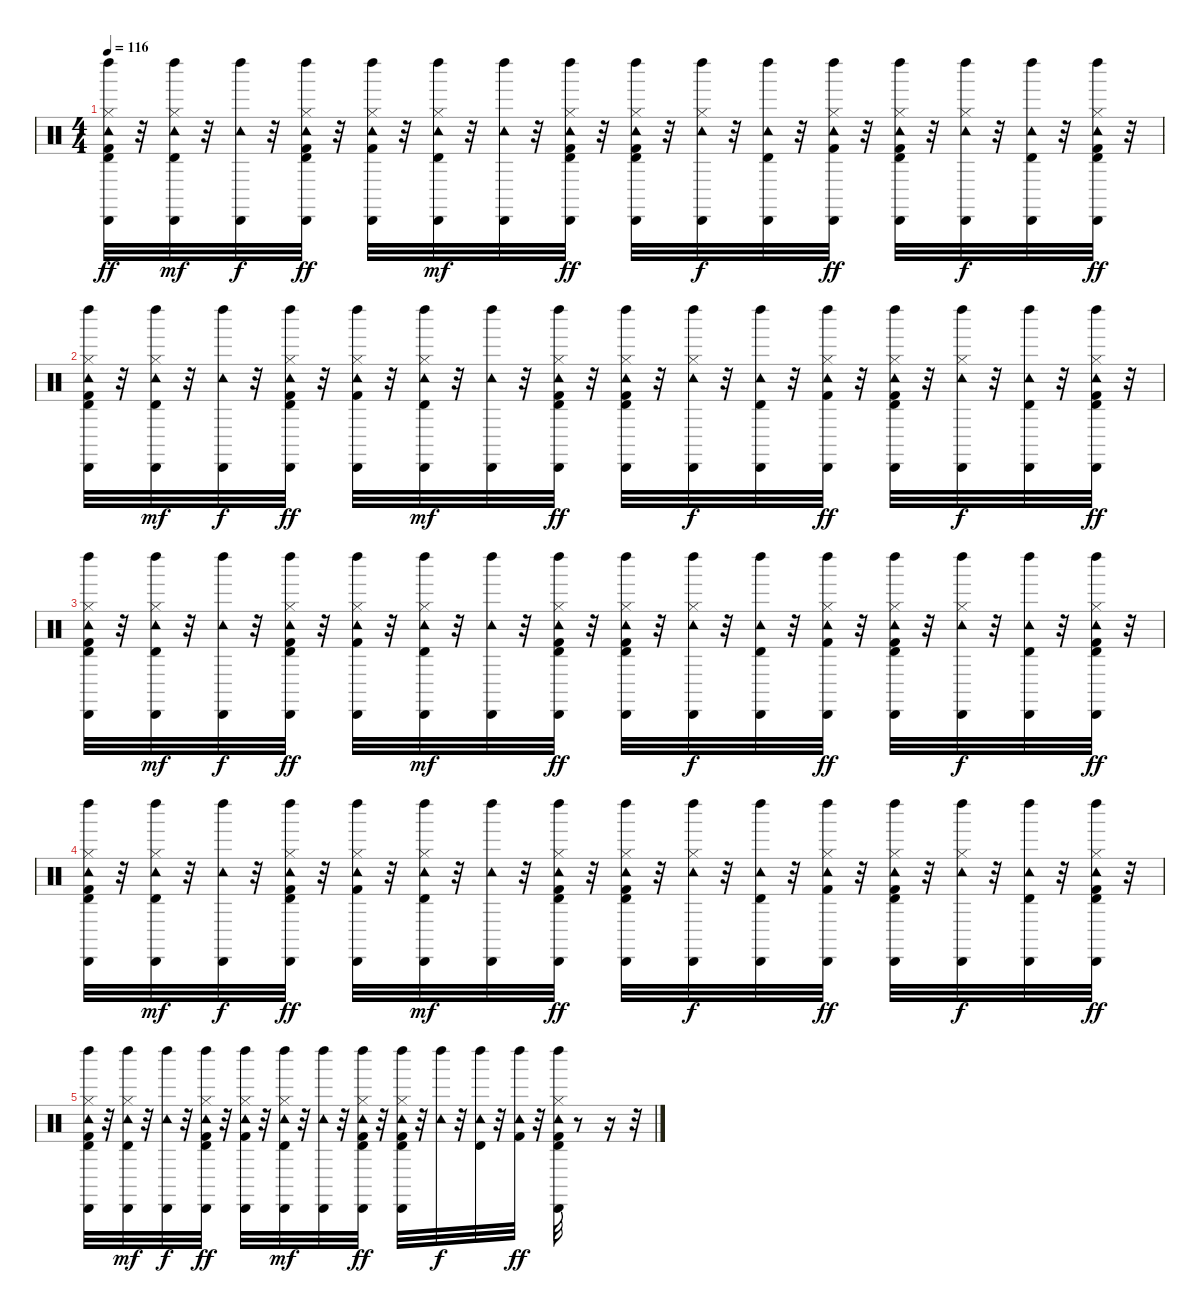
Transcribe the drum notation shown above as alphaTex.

\track "" {instrument percussion}
\staff {score}
\articulation defaults
\ts (4 4)
\tempo 116
\clef neutral
\ks c
("Kick (hit) 2" "Hi-Hat (closed)" "Tambourine (hit)" "Timbale high (hit)" "Cabasa (hit)" "Left Maraca (hit)").32{dy ff} r.32 ("Hi-Hat (closed)" "Tambourine (hit)" "Timbale high (hit)" "Cabasa (hit)" "Left Maraca (hit)").32{dy mf} r.32 ("Tambourine (hit)" "Cabasa (hit)" "Left Maraca (hit)").32{dy f} r.32 ("Kick (hit) 2" "Hi-Hat (closed)" "Tambourine (hit)" "Timbale high (hit)" "Cabasa (hit)" "Left Maraca (hit)").32{dy ff} r.32 ("Kick (hit) 2" "Hi-Hat (closed)" "Tambourine (hit)" "Cabasa (hit)" "Left Maraca (hit)").32 r.32 ("Hi-Hat (closed)" "Tambourine (hit)" "Timbale high (hit)" "Cabasa (hit)" "Left Maraca (hit)").32{dy mf} r.32 ("Tambourine (hit)" "Cabasa (hit)" "Left Maraca (hit)").32 r.32 ("Kick (hit) 2" "Hi-Hat (closed)" "Tambourine (hit)" "Timbale high (hit)" "Cabasa (hit)" "Left Maraca (hit)").32{dy ff} r.32 ("Kick (hit) 2" "Hi-Hat (closed)" "Tambourine (hit)" "Timbale high (hit)" "Cabasa (hit)" "Left Maraca (hit)").32 r.32 ("Hi-Hat (closed)" "Tambourine (hit)" "Cabasa (hit)" "Left Maraca (hit)").32{dy f} r.32 ("Tambourine (hit)" "Timbale high (hit)" "Cabasa (hit)" "Left Maraca (hit)").32 r.32 ("Kick (hit) 2" "Hi-Hat (closed)" "Tambourine (hit)" "Cabasa (hit)" "Left Maraca (hit)").32{dy ff} r.32 ("Kick (hit) 2" "Hi-Hat (closed)" "Tambourine (hit)" "Timbale high (hit)" "Cabasa (hit)" "Left Maraca (hit)").32 r.32 ("Hi-Hat (closed)" "Tambourine (hit)" "Cabasa (hit)" "Left Maraca (hit)").32{dy f} r.32 ("Tambourine (hit)" "Timbale high (hit)" "Cabasa (hit)" "Left Maraca (hit)").32 r.32 ("Kick (hit) 2" "Hi-Hat (closed)" "Tambourine (hit)" "Timbale high (hit)" "Cabasa (hit)" "Left Maraca (hit)").32{dy ff} r.32 |
("Kick (hit) 2" "Hi-Hat (closed)" "Tambourine (hit)" "Timbale high (hit)" "Cabasa (hit)" "Left Maraca (hit)").32 r.32 ("Hi-Hat (closed)" "Tambourine (hit)" "Timbale high (hit)" "Cabasa (hit)" "Left Maraca (hit)").32{dy mf} r.32 ("Tambourine (hit)" "Cabasa (hit)" "Left Maraca (hit)").32{dy f} r.32 ("Kick (hit) 2" "Hi-Hat (closed)" "Tambourine (hit)" "Timbale high (hit)" "Cabasa (hit)" "Left Maraca (hit)").32{dy ff} r.32 ("Kick (hit) 2" "Hi-Hat (closed)" "Tambourine (hit)" "Cabasa (hit)" "Left Maraca (hit)").32 r.32 ("Hi-Hat (closed)" "Tambourine (hit)" "Timbale high (hit)" "Cabasa (hit)" "Left Maraca (hit)").32{dy mf} r.32 ("Tambourine (hit)" "Cabasa (hit)" "Left Maraca (hit)").32 r.32 ("Kick (hit) 2" "Hi-Hat (closed)" "Tambourine (hit)" "Timbale high (hit)" "Cabasa (hit)" "Left Maraca (hit)").32{dy ff} r.32 ("Kick (hit) 2" "Hi-Hat (closed)" "Tambourine (hit)" "Timbale high (hit)" "Cabasa (hit)" "Left Maraca (hit)").32 r.32 ("Hi-Hat (closed)" "Tambourine (hit)" "Cabasa (hit)" "Left Maraca (hit)").32{dy f} r.32 ("Tambourine (hit)" "Timbale high (hit)" "Cabasa (hit)" "Left Maraca (hit)").32 r.32 ("Kick (hit) 2" "Hi-Hat (closed)" "Tambourine (hit)" "Cabasa (hit)" "Left Maraca (hit)").32{dy ff} r.32 ("Kick (hit) 2" "Hi-Hat (closed)" "Tambourine (hit)" "Timbale high (hit)" "Cabasa (hit)" "Left Maraca (hit)").32 r.32 ("Hi-Hat (closed)" "Tambourine (hit)" "Cabasa (hit)" "Left Maraca (hit)").32{dy f} r.32 ("Tambourine (hit)" "Timbale high (hit)" "Cabasa (hit)" "Left Maraca (hit)").32 r.32 ("Kick (hit) 2" "Hi-Hat (closed)" "Tambourine (hit)" "Timbale high (hit)" "Cabasa (hit)" "Left Maraca (hit)").32{dy ff} r.32 |
("Kick (hit) 2" "Hi-Hat (closed)" "Tambourine (hit)" "Timbale high (hit)" "Cabasa (hit)" "Left Maraca (hit)").32 r.32 ("Hi-Hat (closed)" "Tambourine (hit)" "Timbale high (hit)" "Cabasa (hit)" "Left Maraca (hit)").32{dy mf} r.32 ("Tambourine (hit)" "Cabasa (hit)" "Left Maraca (hit)").32{dy f} r.32 ("Kick (hit) 2" "Hi-Hat (closed)" "Tambourine (hit)" "Timbale high (hit)" "Cabasa (hit)" "Left Maraca (hit)").32{dy ff} r.32 ("Kick (hit) 2" "Hi-Hat (closed)" "Tambourine (hit)" "Cabasa (hit)" "Left Maraca (hit)").32 r.32 ("Hi-Hat (closed)" "Tambourine (hit)" "Timbale high (hit)" "Cabasa (hit)" "Left Maraca (hit)").32{dy mf} r.32 ("Tambourine (hit)" "Cabasa (hit)" "Left Maraca (hit)").32 r.32 ("Kick (hit) 2" "Hi-Hat (closed)" "Tambourine (hit)" "Timbale high (hit)" "Cabasa (hit)" "Left Maraca (hit)").32{dy ff} r.32 ("Kick (hit) 2" "Hi-Hat (closed)" "Tambourine (hit)" "Timbale high (hit)" "Cabasa (hit)" "Left Maraca (hit)").32 r.32 ("Hi-Hat (closed)" "Tambourine (hit)" "Cabasa (hit)" "Left Maraca (hit)").32{dy f} r.32 ("Tambourine (hit)" "Timbale high (hit)" "Cabasa (hit)" "Left Maraca (hit)").32 r.32 ("Kick (hit) 2" "Hi-Hat (closed)" "Tambourine (hit)" "Cabasa (hit)" "Left Maraca (hit)").32{dy ff} r.32 ("Kick (hit) 2" "Hi-Hat (closed)" "Tambourine (hit)" "Timbale high (hit)" "Cabasa (hit)" "Left Maraca (hit)").32 r.32 ("Hi-Hat (closed)" "Tambourine (hit)" "Cabasa (hit)" "Left Maraca (hit)").32{dy f} r.32 ("Tambourine (hit)" "Timbale high (hit)" "Cabasa (hit)" "Left Maraca (hit)").32 r.32 ("Kick (hit) 2" "Hi-Hat (closed)" "Tambourine (hit)" "Timbale high (hit)" "Cabasa (hit)" "Left Maraca (hit)").32{dy ff} r.32 |
("Kick (hit) 2" "Hi-Hat (closed)" "Tambourine (hit)" "Timbale high (hit)" "Cabasa (hit)" "Left Maraca (hit)").32 r.32 ("Hi-Hat (closed)" "Tambourine (hit)" "Timbale high (hit)" "Cabasa (hit)" "Left Maraca (hit)").32{dy mf} r.32 ("Tambourine (hit)" "Cabasa (hit)" "Left Maraca (hit)").32{dy f} r.32 ("Kick (hit) 2" "Hi-Hat (closed)" "Tambourine (hit)" "Timbale high (hit)" "Cabasa (hit)" "Left Maraca (hit)").32{dy ff} r.32 ("Kick (hit) 2" "Hi-Hat (closed)" "Tambourine (hit)" "Cabasa (hit)" "Left Maraca (hit)").32 r.32 ("Hi-Hat (closed)" "Tambourine (hit)" "Timbale high (hit)" "Cabasa (hit)" "Left Maraca (hit)").32{dy mf} r.32 ("Tambourine (hit)" "Cabasa (hit)" "Left Maraca (hit)").32 r.32 ("Kick (hit) 2" "Hi-Hat (closed)" "Tambourine (hit)" "Timbale high (hit)" "Cabasa (hit)" "Left Maraca (hit)").32{dy ff} r.32 ("Kick (hit) 2" "Hi-Hat (closed)" "Tambourine (hit)" "Timbale high (hit)" "Cabasa (hit)" "Left Maraca (hit)").32 r.32 ("Hi-Hat (closed)" "Tambourine (hit)" "Cabasa (hit)" "Left Maraca (hit)").32{dy f} r.32 ("Tambourine (hit)" "Timbale high (hit)" "Cabasa (hit)" "Left Maraca (hit)").32 r.32 ("Kick (hit) 2" "Hi-Hat (closed)" "Tambourine (hit)" "Cabasa (hit)" "Left Maraca (hit)").32{dy ff} r.32 ("Kick (hit) 2" "Hi-Hat (closed)" "Tambourine (hit)" "Timbale high (hit)" "Cabasa (hit)" "Left Maraca (hit)").32 r.32 ("Hi-Hat (closed)" "Tambourine (hit)" "Cabasa (hit)" "Left Maraca (hit)").32{dy f} r.32 ("Tambourine (hit)" "Timbale high (hit)" "Cabasa (hit)" "Left Maraca (hit)").32 r.32 ("Kick (hit) 2" "Hi-Hat (closed)" "Tambourine (hit)" "Timbale high (hit)" "Cabasa (hit)" "Left Maraca (hit)").32{dy ff} r.32 |
("Kick (hit) 2" "Hi-Hat (closed)" "Tambourine (hit)" "Timbale high (hit)" "Cabasa (hit)" "Left Maraca (hit)").32 r.32 ("Hi-Hat (closed)" "Tambourine (hit)" "Timbale high (hit)" "Cabasa (hit)" "Left Maraca (hit)").32{dy mf} r.32 ("Tambourine (hit)" "Cabasa (hit)" "Left Maraca (hit)").32{dy f} r.32 ("Kick (hit) 2" "Hi-Hat (closed)" "Tambourine (hit)" "Timbale high (hit)" "Cabasa (hit)" "Left Maraca (hit)").32{dy ff} r.32 ("Kick (hit) 2" "Hi-Hat (closed)" "Tambourine (hit)" "Cabasa (hit)" "Left Maraca (hit)").32 r.32 ("Hi-Hat (closed)" "Tambourine (hit)" "Timbale high (hit)" "Cabasa (hit)" "Left Maraca (hit)").32{dy mf} r.32 ("Tambourine (hit)" "Cabasa (hit)" "Left Maraca (hit)").32 r.32 ("Kick (hit) 2" "Hi-Hat (closed)" "Tambourine (hit)" "Timbale high (hit)" "Cabasa (hit)" "Left Maraca (hit)").32{dy ff} r.32 ("Kick (hit) 2" "Hi-Hat (closed)" "Tambourine (hit)" "Timbale high (hit)" "Cabasa (hit)" "Left Maraca (hit)").32 r.32 ("Tambourine (hit)" "Left Maraca (hit)").32{dy f} r.32 ("Tambourine (hit)" "Timbale high (hit)" "Left Maraca (hit)").32 r.32 ("Kick (hit) 2" "Tambourine (hit)" "Left Maraca (hit)").32{dy ff} r.32 ("Kick (hit) 2" "Hi-Hat (closed)" "Tambourine (hit)" "Timbale high (hit)" "Cabasa (hit)" "Left Maraca (hit)").32 r.8 r.16 r.32
